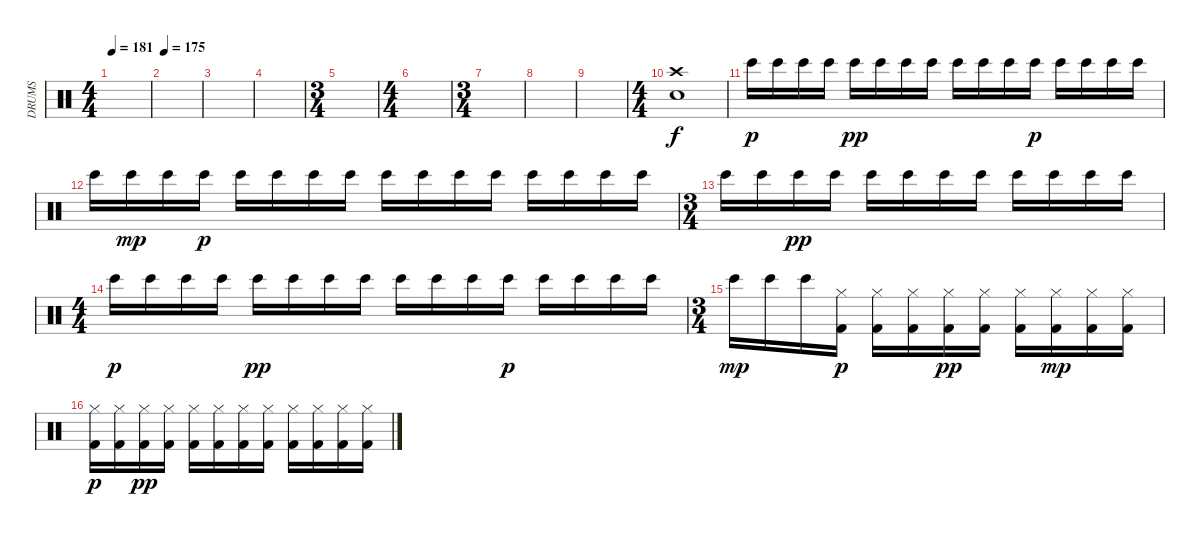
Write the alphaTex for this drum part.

\track ("DRUMS" "DRUMS") {instrument percussion}
\staff {score}
\articulation defaults
\ts (4 4)
\tempo 181
\clef neutral
\ks c
|
\tempo 160
\tempo 175
|
|
|
\ts (3 4)
|
\ts (4 4)
|
\ts (3 4)
|
|
|
\ts (4 4)
("Crash high (hit)" "Snare (hit) 2").1 |
"Bongo High (hit)".16{dy p} "Bongo High (hit)".16 "Bongo High (hit)".16 "Bongo High (hit)".16 "Bongo High (hit)".16{dy pp} "Bongo High (hit)".16 "Bongo High (hit)".16 "Bongo High (hit)".16 "Bongo High (hit)".16 "Bongo High (hit)".16 "Bongo High (hit)".16 "Bongo High (hit)".16{dy p} "Bongo High (hit)".16 "Bongo High (hit)".16 "Bongo High (hit)".16 "Bongo High (hit)".16 |
"Bongo High (hit)".16 "Bongo High (hit)".16{dy mp} "Bongo High (hit)".16 "Bongo High (hit)".16{dy p} "Bongo High (hit)".16 "Bongo High (hit)".16 "Bongo High (hit)".16 "Bongo High (hit)".16 "Bongo High (hit)".16 "Bongo High (hit)".16 "Bongo High (hit)".16 "Bongo High (hit)".16 "Bongo High (hit)".16 "Bongo High (hit)".16 "Bongo High (hit)".16 "Bongo High (hit)".16 |
\ts (3 4)
"Bongo High (hit)".16 "Bongo High (hit)".16 "Bongo High (hit)".16{dy pp} "Bongo High (hit)".16 "Bongo High (hit)".16 "Bongo High (hit)".16 "Bongo High (hit)".16 "Bongo High (hit)".16 "Bongo High (hit)".16 "Bongo High (hit)".16 "Bongo High (hit)".16 "Bongo High (hit)".16 |
\ts (4 4)
"Bongo High (hit)".16{dy p} "Bongo High (hit)".16 "Bongo High (hit)".16 "Bongo High (hit)".16 "Bongo High (hit)".16{dy pp} "Bongo High (hit)".16 "Bongo High (hit)".16 "Bongo High (hit)".16 "Bongo High (hit)".16 "Bongo High (hit)".16 "Bongo High (hit)".16 "Bongo High (hit)".16{dy p} "Bongo High (hit)".16 "Bongo High (hit)".16 "Bongo High (hit)".16 "Bongo High (hit)".16 |
\ts (3 4)
"Bongo High (hit)".16{dy mp} "Bongo High (hit)".16 "Bongo High (hit)".16 ("Kick (hit) 2" "Hi-Hat (closed)").16{dy p} ("Kick (hit) 2" "Hi-Hat (closed)").16 ("Kick (hit) 2" "Hi-Hat (closed)").16 ("Kick (hit) 2" "Hi-Hat (closed)").16{dy pp} ("Kick (hit) 2" "Hi-Hat (closed)").16 ("Kick (hit) 2" "Hi-Hat (closed)").16 ("Kick (hit) 2" "Hi-Hat (closed)").16{dy mp} ("Kick (hit) 2" "Hi-Hat (closed)").16 ("Kick (hit) 2" "Hi-Hat (closed)").16 |
("Kick (hit) 2" "Hi-Hat (closed)").16{dy p} ("Kick (hit) 2" "Hi-Hat (closed)").16 ("Kick (hit) 2" "Hi-Hat (closed)").16{dy pp} ("Kick (hit) 2" "Hi-Hat (closed)").16 ("Kick (hit) 2" "Hi-Hat (closed)").16 ("Kick (hit) 2" "Hi-Hat (closed)").16 ("Kick (hit) 2" "Hi-Hat (closed)").16 ("Kick (hit) 2" "Hi-Hat (closed)").16 ("Kick (hit) 2" "Hi-Hat (closed)").16 ("Kick (hit) 2" "Hi-Hat (closed)").16 ("Kick (hit) 2" "Hi-Hat (closed)").16 ("Kick (hit) 2" "Hi-Hat (closed)").16
